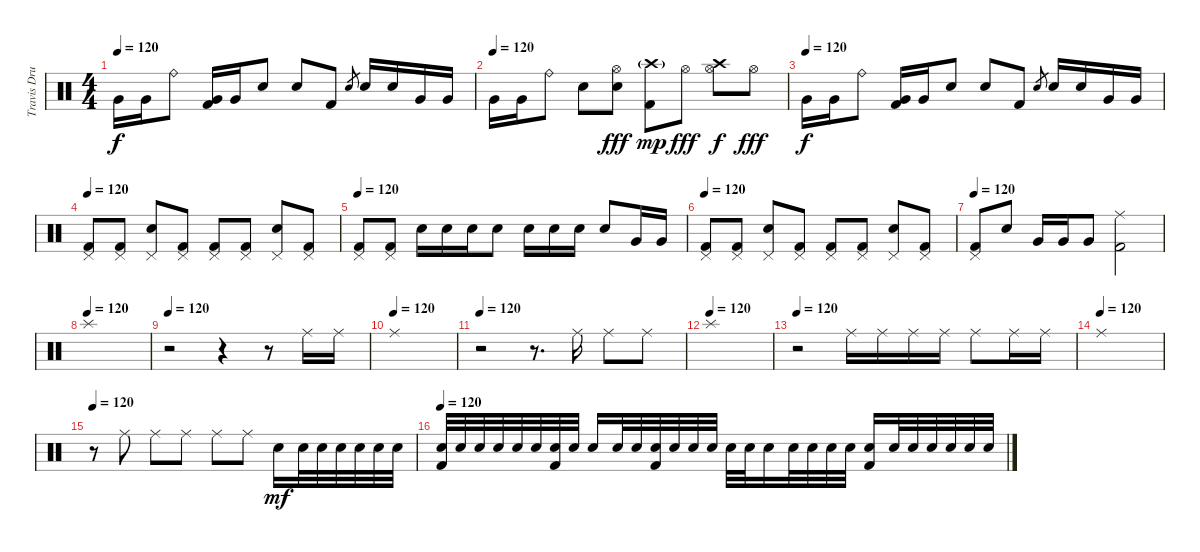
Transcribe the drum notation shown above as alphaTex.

\track ("Travis Drums" "Travis Dru") {instrument percussion}
\staff {score}
\articulation defaults
\ts (4 4)
\tempo 120
\clef neutral
\ks c "Very Low Tom (hit)".16{dy f} "Very Low Tom (hit)".16 "Ride (bell)".8
("Very Low Tom (hit)" "Kick (hit) 2").16 "Very Low Tom (hit)".16 "Electric Snare (hit)".8 "Electric Snare (hit)".8 "Kick (hit) 2".8 "Electric Snare (hit)".8{gr} "Electric Snare (hit)".16 "Electric Snare (hit)".16 "Very Low Tom (hit)".16 "Very Low Tom (hit)".16 |
\tempo (120)
"Very Low Tom (hit)".16 "Very Low Tom (hit)".16 "Ride (bell)".8 "Electric Snare (hit)".8 ("Hi-Hat (open)" "Electric Snare (hit)").8{dy fff} ("Crash high (hit)"{g} "Kick (hit) 2").8{dy mp} "Hi-Hat (open)".8{dy fff} ("Crash high (hit)" "Hi-Hat (open)").8{dy f} "Hi-Hat (open)".8{dy fff} |
\tempo (120)
"Very Low Tom (hit)".16{dy f} "Very Low Tom (hit)".16 "Ride (bell)".8 ("Very Low Tom (hit)" "Kick (hit) 2").16 "Very Low Tom (hit)".16 "Electric Snare (hit)".8 "Electric Snare (hit)".8 "Kick (hit) 2".8 "Electric Snare (hit)".8{gr} "Electric Snare (hit)".16 "Electric Snare (hit)".16 "Very Low Tom (hit)".16 "Very Low Tom (hit)".16 |
\tempo 120
("Pedal Hi-Hat (hit)" "Kick (hit) 2").8 ("Pedal Hi-Hat (hit)" "Kick (hit) 2").8 ("Pedal Hi-Hat (hit)" "Electric Snare (hit)").8 ("Pedal Hi-Hat (hit)" "Kick (hit) 2").8 ("Pedal Hi-Hat (hit)" "Kick (hit) 2").8 ("Pedal Hi-Hat (hit)" "Kick (hit) 2").8 ("Pedal Hi-Hat (hit)" "Electric Snare (hit)").8 ("Pedal Hi-Hat (hit)" "Kick (hit) 2").8 |
\tempo 120
("Pedal Hi-Hat (hit)" "Kick (hit) 2").8 ("Pedal Hi-Hat (hit)" "Kick (hit) 2").8 "Electric Snare (hit)".16 "Electric Snare (hit)".16 "Electric Snare (hit)".16 "Electric Snare (hit)".8 "Electric Snare (hit)".16 "Electric Snare (hit)".16 "Electric Snare (hit)".16 "Electric Snare (hit)".8 "Very Low Tom (hit)".16 "Very Low Tom (hit)".16 |
\tempo 120
("Pedal Hi-Hat (hit)" "Kick (hit) 2").8 ("Pedal Hi-Hat (hit)" "Kick (hit) 2").8 ("Pedal Hi-Hat (hit)" "Electric Snare (hit)").8 ("Pedal Hi-Hat (hit)" "Kick (hit) 2").8 ("Pedal Hi-Hat (hit)" "Kick (hit) 2").8 ("Pedal Hi-Hat (hit)" "Kick (hit) 2").8 ("Pedal Hi-Hat (hit)" "Electric Snare (hit)").8 ("Pedal Hi-Hat (hit)" "Kick (hit) 2").8 |
\tempo 120
("Pedal Hi-Hat (hit)" "Kick (hit) 2").8 "Electric Snare (hit)".8 "Very Low Tom (hit)".16 "Very Low Tom (hit)".16 "Very Low Tom (hit)".8 ("Ride (middle)" "Kick (hit) 2").2 |
\tempo (120)
"Splash (hit)".1 |
\tempo 120
r.2 r.4 r.8 "Ride (middle)".16 "Ride (middle)".16 |
\tempo (120)
"Ride (middle)".1 |
\tempo 120
r.2 r.8{d} "Ride (middle)".16 "Ride (middle)".8 "Ride (middle)".8 |
\tempo (120)
"Splash (hit)".1 |
\tempo 120
r.2 "Ride (middle)".16 "Ride (middle)".16 "Ride (middle)".16 "Ride (middle)".16 "Ride (middle)".8 "Ride (middle)".16 "Ride (middle)".16 |
\tempo (120)
"Ride (middle)".1 |
\tempo 120
r.8 "Ride (middle)".8 "Ride (middle)".8 "Ride (middle)".8 "Ride (middle)".8 "Ride (middle)".8 "Electric Snare (hit)".16{dy mf} "Electric Snare (hit)".32 "Electric Snare (hit)".32 "Electric Snare (hit)".32 "Electric Snare (hit)".32 "Electric Snare (hit)".32 "Electric Snare (hit)".32 |
\tempo 120
("Electric Snare (hit)" "Kick (hit) 2").32 "Electric Snare (hit)".32 "Electric Snare (hit)".32 "Electric Snare (hit)".32 "Electric Snare (hit)".32 "Electric Snare (hit)".32 ("Electric Snare (hit)" "Kick (hit) 2").32 "Electric Snare (hit)".32 "Electric Snare (hit)".16 "Electric Snare (hit)".32 "Electric Snare (hit)".32 ("Electric Snare (hit)" "Kick (hit) 2").32 "Electric Snare (hit)".32 "Electric Snare (hit)".32 "Electric Snare (hit)".32 "Electric Snare (hit)".32 "Electric Snare (hit)".32 "Electric Snare (hit)".16 "Electric Snare (hit)".32 "Electric Snare (hit)".32 "Electric Snare (hit)".32 "Electric Snare (hit)".32 ("Electric Snare (hit)" "Kick (hit) 2").16 "Electric Snare (hit)".32 "Electric Snare (hit)".32 "Electric Snare (hit)".32 "Electric Snare (hit)".32 "Electric Snare (hit)".32 "Electric Snare (hit)".32
